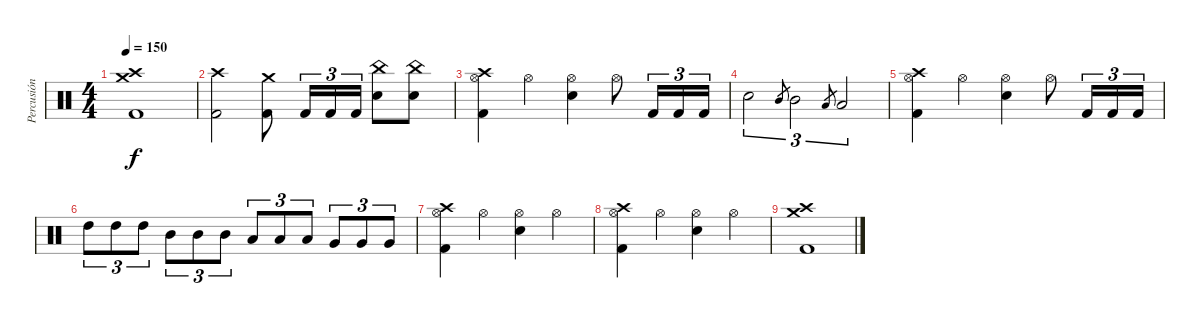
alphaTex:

\track ("Percusión" "Percusión") {instrument percussion}
\staff {score}
\articulation defaults
\ts (4 4)
\tempo 150
\clef neutral
\ks c
("Crash high (hit)" "Crash medium (hit)" "Kick (hit) 2").1{dy f} |
("Crash high (hit)" "Kick (hit) 2").2 ("Crash medium (hit)" "Kick (hit) 2").8 "Kick (hit) 2".16{tu (3 2)} "Kick (hit) 2".16{tu (3 2)} "Kick (hit) 2".16{tu (3 2)} ("China (hit)" "Snare (hit) 2").8 ("China (hit)" "Snare (hit) 2").8 |
("Crash high (hit)" "Hi-Hat (open)" "Kick (hit) 2").4 "Hi-Hat (open)".4 ("Hi-Hat (open)" "Snare (hit) 2").4 "Hi-Hat (open)".8 "Kick (hit) 2".16{tu (3 2)} "Kick (hit) 2".16{tu (3 2)} "Kick (hit) 2".16{tu (3 2)} |
"Snare (hit) 2".2{tu (3 2)} "Mid Tom (hit)".8{gr} "Mid Tom (hit)".2{tu (3 2)} "Low Tom (hit)".8{gr} "Low Tom (hit)".2{tu (3 2)} |
("Crash high (hit)" "Hi-Hat (open)" "Kick (hit) 2").4 "Hi-Hat (open)".4 ("Hi-Hat (open)" "Snare (hit) 2").4 "Hi-Hat (open)".8 "Kick (hit) 2".16{tu (3 2)} "Kick (hit) 2".16{tu (3 2)} "Kick (hit) 2".16{tu (3 2)} |
"High Tom (hit)".8{tu (3 2)} "High Tom (hit)".8{tu (3 2)} "High Tom (hit)".8{tu (3 2)} "Mid Tom (hit)".8{tu (3 2)} "Mid Tom (hit)".8{tu (3 2)} "Mid Tom (hit)".8{tu (3 2)} "Low Tom (hit)".8{tu (3 2)} "Low Tom (hit)".8{tu (3 2)} "Low Tom (hit)".8{tu (3 2)} "Very Low Tom (hit)".8{tu (3 2)} "Very Low Tom (hit)".8{tu (3 2)} "Very Low Tom (hit)".8{tu (3 2)} |
("Crash high (hit)" "Hi-Hat (open)" "Kick (hit) 2").4 "Hi-Hat (open)".4 ("Hi-Hat (open)" "Snare (hit) 2").4 "Hi-Hat (open)".4 |
("Crash high (hit)" "Hi-Hat (open)" "Kick (hit) 2").4 "Hi-Hat (open)".4 ("Hi-Hat (open)" "Snare (hit) 2").4 "Hi-Hat (open)".4 |
("Crash high (hit)" "Crash medium (hit)" "Kick (hit) 2").1
